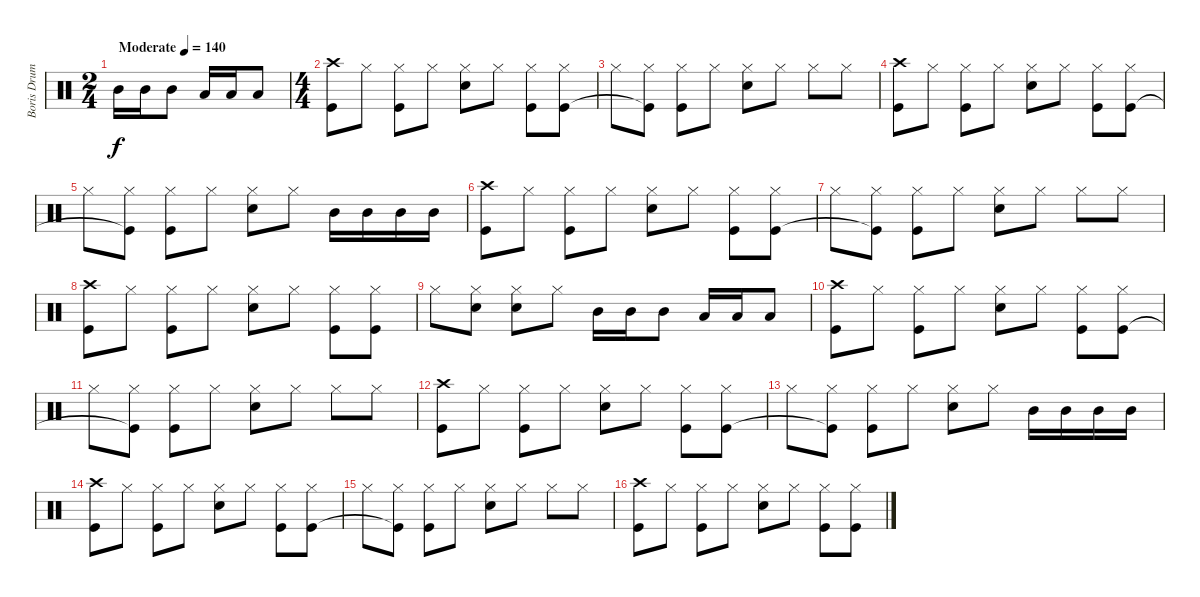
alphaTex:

\track ("Boris Drums" "Boris Drum") {instrument percussion}
\staff {score}
\articulation defaults
\ts (2 4)
\tempo (140 "Moderate")
\clef neutral
\ks c "Mid Tom (hit)".16{dy f} "Mid Tom (hit)".16 "Mid Tom (hit)".8 "Low Tom (hit)".16 "Low Tom (hit)".16 "Low Tom (hit)".8
|
\ts (4 4)
("Crash high (hit)" "Kick (hit)").8 "Hi-Hat (closed)".8 ("Hi-Hat (closed)" "Kick (hit)").8 "Hi-Hat (closed)".8 ("Hi-Hat (closed)" "Electric Snare (hit)").8 "Hi-Hat (closed)".8 ("Hi-Hat (closed)" "Kick (hit)").8 ("Hi-Hat (closed)" "Kick (hit)").8 |
"Hi-Hat (closed)".8 ("Hi-Hat (closed)" "Kick (hit)"{t}).8 ("Hi-Hat (closed)" "Kick (hit)").8 "Hi-Hat (closed)".8 ("Hi-Hat (closed)" "Electric Snare (hit)").8 "Hi-Hat (closed)".8 "Hi-Hat (closed)".8 "Hi-Hat (closed)".8 |
("Crash high (hit)" "Kick (hit)").8 "Hi-Hat (closed)".8 ("Hi-Hat (closed)" "Kick (hit)").8 "Hi-Hat (closed)".8 ("Hi-Hat (closed)" "Electric Snare (hit)").8 "Hi-Hat (closed)".8 ("Hi-Hat (closed)" "Kick (hit)").8 ("Hi-Hat (closed)" "Kick (hit)").8 |
"Hi-Hat (closed)".8 ("Hi-Hat (closed)" "Kick (hit)"{t}).8 ("Hi-Hat (closed)" "Kick (hit)").8 "Hi-Hat (closed)".8 ("Hi-Hat (closed)" "Electric Snare (hit)").8 "Hi-Hat (closed)".8 "Mid Tom (hit)".16 "Mid Tom (hit)".16 "Mid Tom (hit)".16 "Mid Tom (hit)".16 |
("Crash high (hit)" "Kick (hit)").8 "Hi-Hat (closed)".8 ("Hi-Hat (closed)" "Kick (hit)").8 "Hi-Hat (closed)".8 ("Hi-Hat (closed)" "Electric Snare (hit)").8 "Hi-Hat (closed)".8 ("Hi-Hat (closed)" "Kick (hit)").8 ("Hi-Hat (closed)" "Kick (hit)").8 |
"Hi-Hat (closed)".8 ("Hi-Hat (closed)" "Kick (hit)"{t}).8 ("Hi-Hat (closed)" "Kick (hit)").8 "Hi-Hat (closed)".8 ("Hi-Hat (closed)" "Electric Snare (hit)").8 "Hi-Hat (closed)".8 "Hi-Hat (closed)".8 "Hi-Hat (closed)".8 |
("Crash high (hit)" "Kick (hit)").8 "Hi-Hat (closed)".8 ("Hi-Hat (closed)" "Kick (hit)").8 "Hi-Hat (closed)".8 ("Hi-Hat (closed)" "Electric Snare (hit)").8 "Hi-Hat (closed)".8 ("Hi-Hat (closed)" "Kick (hit)").8 ("Hi-Hat (closed)" "Kick (hit)").8 |
"Hi-Hat (closed)".8 ("Hi-Hat (closed)" "Electric Snare (hit)").8 ("Hi-Hat (closed)" "Electric Snare (hit)").8 "Hi-Hat (closed)".8 "Mid Tom (hit)".16 "Mid Tom (hit)".16 "Mid Tom (hit)".8 "Low Tom (hit)".16 "Low Tom (hit)".16 "Low Tom (hit)".8 |
("Crash high (hit)" "Kick (hit)").8 "Hi-Hat (closed)".8 ("Hi-Hat (closed)" "Kick (hit)").8 "Hi-Hat (closed)".8 ("Hi-Hat (closed)" "Electric Snare (hit)").8 "Hi-Hat (closed)".8 ("Hi-Hat (closed)" "Kick (hit)").8 ("Hi-Hat (closed)" "Kick (hit)").8 |
"Hi-Hat (closed)".8 ("Hi-Hat (closed)" "Kick (hit)"{t}).8 ("Hi-Hat (closed)" "Kick (hit)").8 "Hi-Hat (closed)".8 ("Hi-Hat (closed)" "Electric Snare (hit)").8 "Hi-Hat (closed)".8 "Hi-Hat (closed)".8 "Hi-Hat (closed)".8 |
("Crash high (hit)" "Kick (hit)").8 "Hi-Hat (closed)".8 ("Hi-Hat (closed)" "Kick (hit)").8 "Hi-Hat (closed)".8 ("Hi-Hat (closed)" "Electric Snare (hit)").8 "Hi-Hat (closed)".8 ("Hi-Hat (closed)" "Kick (hit)").8 ("Hi-Hat (closed)" "Kick (hit)").8 |
"Hi-Hat (closed)".8 ("Hi-Hat (closed)" "Kick (hit)"{t}).8 ("Hi-Hat (closed)" "Kick (hit)").8 "Hi-Hat (closed)".8 ("Hi-Hat (closed)" "Electric Snare (hit)").8 "Hi-Hat (closed)".8 "Mid Tom (hit)".16 "Mid Tom (hit)".16 "Mid Tom (hit)".16 "Mid Tom (hit)".16 |
("Crash high (hit)" "Kick (hit)").8 "Hi-Hat (closed)".8 ("Hi-Hat (closed)" "Kick (hit)").8 "Hi-Hat (closed)".8 ("Hi-Hat (closed)" "Electric Snare (hit)").8 "Hi-Hat (closed)".8 ("Hi-Hat (closed)" "Kick (hit)").8 ("Hi-Hat (closed)" "Kick (hit)").8 |
"Hi-Hat (closed)".8 ("Hi-Hat (closed)" "Kick (hit)"{t}).8 ("Hi-Hat (closed)" "Kick (hit)").8 "Hi-Hat (closed)".8 ("Hi-Hat (closed)" "Electric Snare (hit)").8 "Hi-Hat (closed)".8 "Hi-Hat (closed)".8 "Hi-Hat (closed)".8 |
("Crash high (hit)" "Kick (hit)").8 "Hi-Hat (closed)".8 ("Hi-Hat (closed)" "Kick (hit)").8 "Hi-Hat (closed)".8 ("Hi-Hat (closed)" "Electric Snare (hit)").8 "Hi-Hat (closed)".8 ("Hi-Hat (closed)" "Kick (hit)").8 ("Hi-Hat (closed)" "Kick (hit)").8
